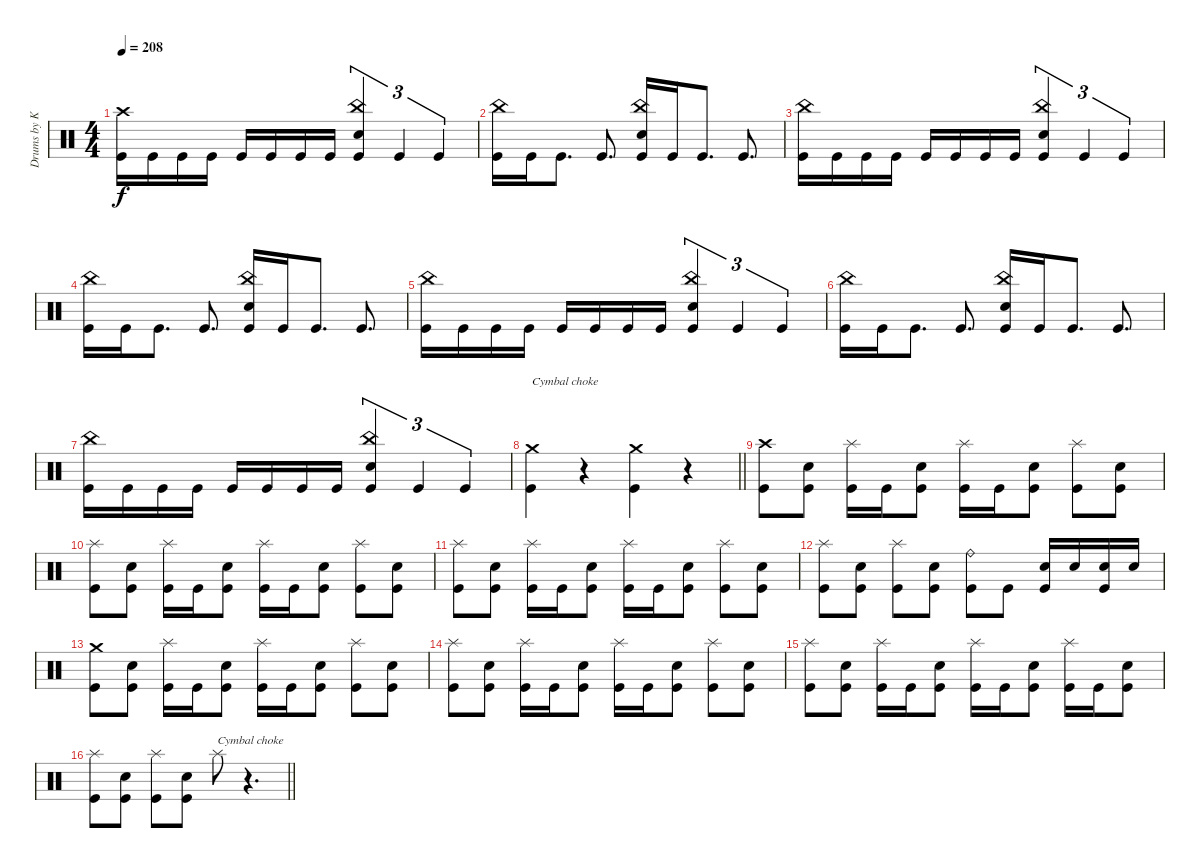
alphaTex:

\track ("Drums by Kwonnie" "Drums by K") {instrument percussion}
\staff {score}
\articulation defaults
\ts (4 4)
\tempo 208
\clef neutral
\ks c
("Crash high (hit)" "Kick (hit)").16{dy f} "Kick (hit)".16 "Kick (hit)".16 "Kick (hit)".16 "Kick (hit)".16 "Kick (hit)".16 "Kick (hit)".16 "Kick (hit)".16 ("China (hit)" "Electric Snare (hit)" "Kick (hit)").4{tu (3 2)} "Kick (hit)".4{tu (3 2)} "Kick (hit)".4{tu (3 2)} |
("China (hit)" "Kick (hit)").16 "Kick (hit)".16 "Kick (hit)".8{d} "Kick (hit)".8{d} ("China (hit)" "Electric Snare (hit)" "Kick (hit)").16 "Kick (hit)".16 "Kick (hit)".8{d} "Kick (hit)".8{d} |
("China (hit)" "Kick (hit)").16 "Kick (hit)".16 "Kick (hit)".16 "Kick (hit)".16 "Kick (hit)".16 "Kick (hit)".16 "Kick (hit)".16 "Kick (hit)".16 ("China (hit)" "Electric Snare (hit)" "Kick (hit)").4{tu (3 2)} "Kick (hit)".4{tu (3 2)} "Kick (hit)".4{tu (3 2)} |
("China (hit)" "Kick (hit)").16 "Kick (hit)".16 "Kick (hit)".8{d} "Kick (hit)".8{d} ("China (hit)" "Electric Snare (hit)" "Kick (hit)").16 "Kick (hit)".16 "Kick (hit)".8{d} "Kick (hit)".8{d} |
("China (hit)" "Kick (hit)").16 "Kick (hit)".16 "Kick (hit)".16 "Kick (hit)".16 "Kick (hit)".16 "Kick (hit)".16 "Kick (hit)".16 "Kick (hit)".16 ("China (hit)" "Electric Snare (hit)" "Kick (hit)").4{tu (3 2)} "Kick (hit)".4{tu (3 2)} "Kick (hit)".4{tu (3 2)} |
("China (hit)" "Kick (hit)").16 "Kick (hit)".16 "Kick (hit)".8{d} "Kick (hit)".8{d} ("China (hit)" "Electric Snare (hit)" "Kick (hit)").16 "Kick (hit)".16 "Kick (hit)".8{d} "Kick (hit)".8{d} |
("China (hit)" "Kick (hit)").16 "Kick (hit)".16 "Kick (hit)".16 "Kick (hit)".16 "Kick (hit)".16 "Kick (hit)".16 "Kick (hit)".16 "Kick (hit)".16 ("China (hit)" "Electric Snare (hit)" "Kick (hit)").4{tu (3 2)} "Kick (hit)".4{tu (3 2)} "Kick (hit)".4{tu (3 2)} |
\barLineRight lightlight
("Crash medium (hit)" "Kick (hit)").4{txt "Cymbal choke"} r.4{volume 0} ("Crash medium (hit)" "Kick (hit)").4{volume 10} r.4{volume 0} |
("Crash high (hit)" "Kick (hit)").8{volume 10} ("Electric Snare (hit)" "Kick (hit)").8 ("Splash (hit)" "Kick (hit)").16 "Kick (hit)".16 ("Electric Snare (hit)" "Kick (hit)").8 ("Splash (hit)" "Kick (hit)").16 "Kick (hit)".16 ("Electric Snare (hit)" "Kick (hit)").8 ("Splash (hit)" "Kick (hit)").8 ("Electric Snare (hit)" "Kick (hit)").8 |
("Splash (hit)" "Kick (hit)").8 ("Electric Snare (hit)" "Kick (hit)").8 ("Splash (hit)" "Kick (hit)").16 "Kick (hit)".16 ("Electric Snare (hit)" "Kick (hit)").8 ("Splash (hit)" "Kick (hit)").16 "Kick (hit)".16 ("Electric Snare (hit)" "Kick (hit)").8 ("Splash (hit)" "Kick (hit)").8 ("Electric Snare (hit)" "Kick (hit)").8 |
("Splash (hit)" "Kick (hit)").8 ("Electric Snare (hit)" "Kick (hit)").8 ("Splash (hit)" "Kick (hit)").16 "Kick (hit)".16 ("Electric Snare (hit)" "Kick (hit)").8 ("Splash (hit)" "Kick (hit)").16 "Kick (hit)".16 ("Electric Snare (hit)" "Kick (hit)").8 ("Splash (hit)" "Kick (hit)").8 ("Electric Snare (hit)" "Kick (hit)").8 |
("Splash (hit)" "Kick (hit)").8 ("Electric Snare (hit)" "Kick (hit)").8 ("Splash (hit)" "Kick (hit)").8 ("Electric Snare (hit)" "Kick (hit)").8 ("Ride (bell)" "Kick (hit)").8 "Kick (hit)".8 ("Electric Snare (hit)" "Kick (hit)").16 "Electric Snare (hit)".16 ("Electric Snare (hit)" "Kick (hit)").16 "Electric Snare (hit)".16 |
("Crash medium (hit)" "Kick (hit)").8 ("Electric Snare (hit)" "Kick (hit)").8 ("Splash (hit)" "Kick (hit)").16 "Kick (hit)".16 ("Electric Snare (hit)" "Kick (hit)").8 ("Splash (hit)" "Kick (hit)").16 "Kick (hit)".16 ("Electric Snare (hit)" "Kick (hit)").8 ("Splash (hit)" "Kick (hit)").8 ("Electric Snare (hit)" "Kick (hit)").8 |
("Splash (hit)" "Kick (hit)").8 ("Electric Snare (hit)" "Kick (hit)").8 ("Splash (hit)" "Kick (hit)").16 "Kick (hit)".16 ("Electric Snare (hit)" "Kick (hit)").8 ("Splash (hit)" "Kick (hit)").16 "Kick (hit)".16 ("Electric Snare (hit)" "Kick (hit)").8 ("Splash (hit)" "Kick (hit)").8 ("Electric Snare (hit)" "Kick (hit)").8 |
("Splash (hit)" "Kick (hit)").8 ("Electric Snare (hit)" "Kick (hit)").8 ("Splash (hit)" "Kick (hit)").16 "Kick (hit)".16 ("Electric Snare (hit)" "Kick (hit)").8 ("Splash (hit)" "Kick (hit)").16 "Kick (hit)".16 ("Electric Snare (hit)" "Kick (hit)").8 ("Splash (hit)" "Kick (hit)").16 "Kick (hit)".16 ("Electric Snare (hit)" "Kick (hit)").8 |
\barLineRight lightlight
("Splash (hit)" "Kick (hit)").8 ("Electric Snare (hit)" "Kick (hit)").8 ("Splash (hit)" "Kick (hit)").8 ("Electric Snare (hit)" "Kick (hit)").8 "Splash (hit)".8{txt "Cymbal choke"} r.4{d volume 0}
